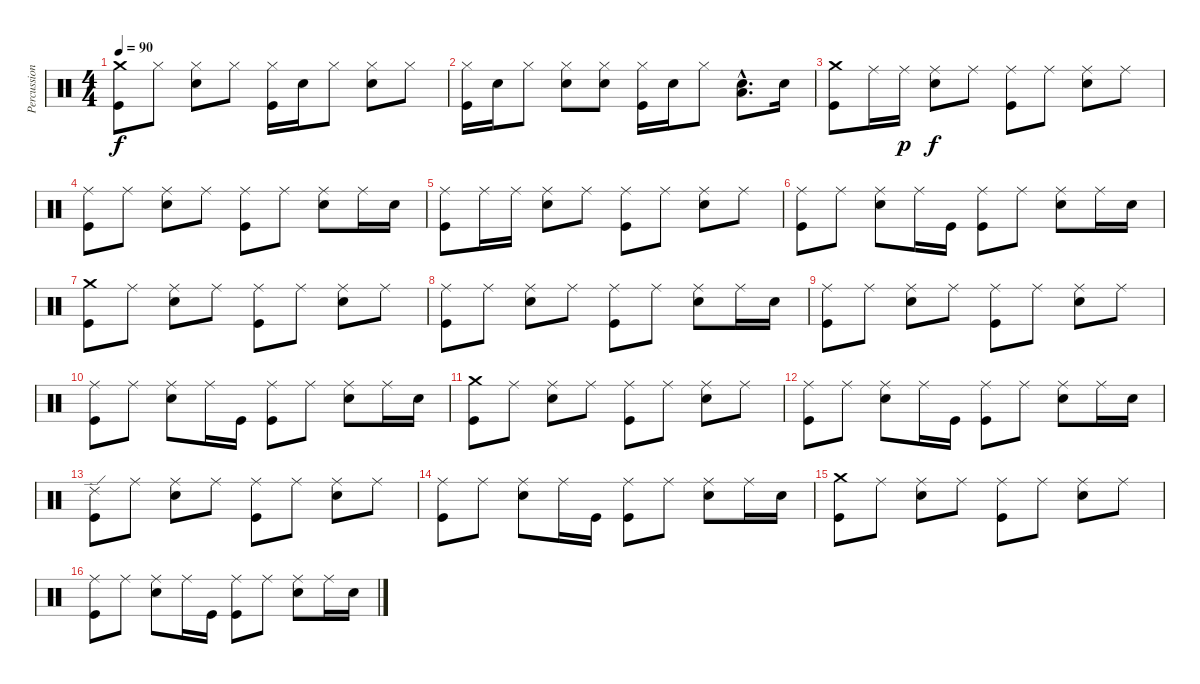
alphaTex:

\track ("Percussion (DK 0)" "Percussion") {instrument percussion}
\staff {score}
\articulation defaults
\ts (4 4)
\tempo 90
\clef neutral
\ks c
("Crash medium (hit)" "Kick (hit)").8{dy f} "Hi-Hat (closed)".8 ("Hi-Hat (closed)" "Electric Snare (hit)").8 "Hi-Hat (closed)".8 ("Hi-Hat (closed)" "Kick (hit)").16 "Electric Snare (hit)".16 "Hi-Hat (closed)".8 ("Hi-Hat (closed)" "Electric Snare (hit)").8 "Hi-Hat (closed)".8 |
("Hi-Hat (closed)" "Kick (hit)").16 "Electric Snare (hit)".16 "Hi-Hat (closed)".8 ("Hi-Hat (closed)" "Electric Snare (hit)").8 ("Hi-Hat (closed)" "Electric Snare (hit)").8 ("Hi-Hat (closed)" "Kick (hit)").16 "Electric Snare (hit)".16 "Hi-Hat (closed)".8 ("Low Tom (hit)"{hac} "Electric Snare (hit)"{hac}).8{d} "Electric Snare (hit)".16 |
("Crash medium (hit)" "Kick (hit)").8 "Ride (middle)".16 "Ride (middle)".16{dy p} ("Ride (middle)" "Electric Snare (hit)").8{dy f} "Ride (middle)".8 ("Ride (middle)" "Kick (hit)").8 "Ride (middle)".8 ("Ride (middle)" "Electric Snare (hit)").8 "Ride (middle)".8 |
("Ride (middle)" "Kick (hit)").8 "Ride (middle)".8 ("Ride (middle)" "Electric Snare (hit)").8 "Ride (middle)".8 ("Ride (middle)" "Kick (hit)").8 "Ride (middle)".8 ("Ride (middle)" "Electric Snare (hit)").8 "Ride (middle)".16 "Electric Snare (hit)".16 |
("Ride (middle)" "Kick (hit)").8 "Ride (middle)".16 "Ride (middle)".16 ("Ride (middle)" "Electric Snare (hit)").8 "Ride (middle)".8 ("Ride (middle)" "Kick (hit)").8 "Ride (middle)".8 ("Ride (middle)" "Electric Snare (hit)").8 "Ride (middle)".8 |
("Ride (middle)" "Kick (hit)").8 "Ride (middle)".8 ("Ride (middle)" "Electric Snare (hit)").8 "Ride (middle)".16 "Kick (hit)".16 ("Ride (middle)" "Kick (hit)").8 "Ride (middle)".8 ("Ride (middle)" "Electric Snare (hit)").8 "Ride (middle)".16 "Electric Snare (hit)".16 |
("Crash medium (hit)" "Kick (hit)").8 "Ride (middle)".8 ("Ride (middle)" "Electric Snare (hit)").8 "Ride (middle)".8 ("Ride (middle)" "Kick (hit)").8 "Ride (middle)".8 ("Ride (middle)" "Electric Snare (hit)").8 "Ride (middle)".8 |
("Ride (middle)" "Kick (hit)").8 "Ride (middle)".8 ("Ride (middle)" "Electric Snare (hit)").8 "Ride (middle)".8 ("Ride (middle)" "Kick (hit)").8 "Ride (middle)".8 ("Ride (middle)" "Electric Snare (hit)").8 "Ride (middle)".16 "Electric Snare (hit)".16 |
("Ride (middle)" "Kick (hit)").8 "Ride (middle)".8 ("Ride (middle)" "Electric Snare (hit)").8 "Ride (middle)".8 ("Ride (middle)" "Kick (hit)").8 "Ride (middle)".8 ("Ride (middle)" "Electric Snare (hit)").8 "Ride (middle)".8 |
("Ride (middle)" "Kick (hit)").8 "Ride (middle)".8 ("Ride (middle)" "Electric Snare (hit)").8 "Ride (middle)".16 "Kick (hit)".16 ("Ride (middle)" "Kick (hit)").8 "Ride (middle)".8 ("Ride (middle)" "Electric Snare (hit)").8 "Ride (middle)".16 "Electric Snare (hit)".16 |
("Crash medium (hit)" "Kick (hit)").8 "Ride (middle)".8 ("Ride (middle)" "Electric Snare (hit)").8 "Ride (middle)".8 ("Ride (middle)" "Kick (hit)").8 "Ride (middle)".8 ("Ride (middle)" "Electric Snare (hit)").8 "Ride (middle)".8 |
("Ride (middle)" "Kick (hit)").8 "Ride (middle)".8 ("Ride (middle)" "Electric Snare (hit)").8 "Ride (middle)".16 "Kick (hit)".16 ("Ride (middle)" "Kick (hit)").8 "Ride (middle)".8 ("Ride (middle)" "Electric Snare (hit)").8 "Ride (middle)".16 "Electric Snare (hit)".16 |
("Ride (edge) 2" "Kick (hit)").8 "Ride (middle)".8 ("Ride (middle)" "Electric Snare (hit)").8 "Ride (middle)".8 ("Ride (middle)" "Kick (hit)").8 "Ride (middle)".8 ("Ride (middle)" "Electric Snare (hit)").8 "Ride (middle)".8 |
("Ride (middle)" "Kick (hit)").8 "Ride (middle)".8 ("Ride (middle)" "Electric Snare (hit)").8 "Ride (middle)".16 "Kick (hit)".16 ("Ride (middle)" "Kick (hit)").8 "Ride (middle)".8 ("Ride (middle)" "Electric Snare (hit)").8 "Ride (middle)".16 "Electric Snare (hit)".16 |
("Crash medium (hit)" "Kick (hit)").8 "Ride (middle)".8 ("Ride (middle)" "Electric Snare (hit)").8 "Ride (middle)".8 ("Ride (middle)" "Kick (hit)").8 "Ride (middle)".8 ("Ride (middle)" "Electric Snare (hit)").8 "Ride (middle)".8 |
("Ride (middle)" "Kick (hit)").8 "Ride (middle)".8 ("Ride (middle)" "Electric Snare (hit)").8 "Ride (middle)".16 "Kick (hit)".16 ("Ride (middle)" "Kick (hit)").8 "Ride (middle)".8 ("Ride (middle)" "Electric Snare (hit)").8 "Ride (middle)".16 "Electric Snare (hit)".16
